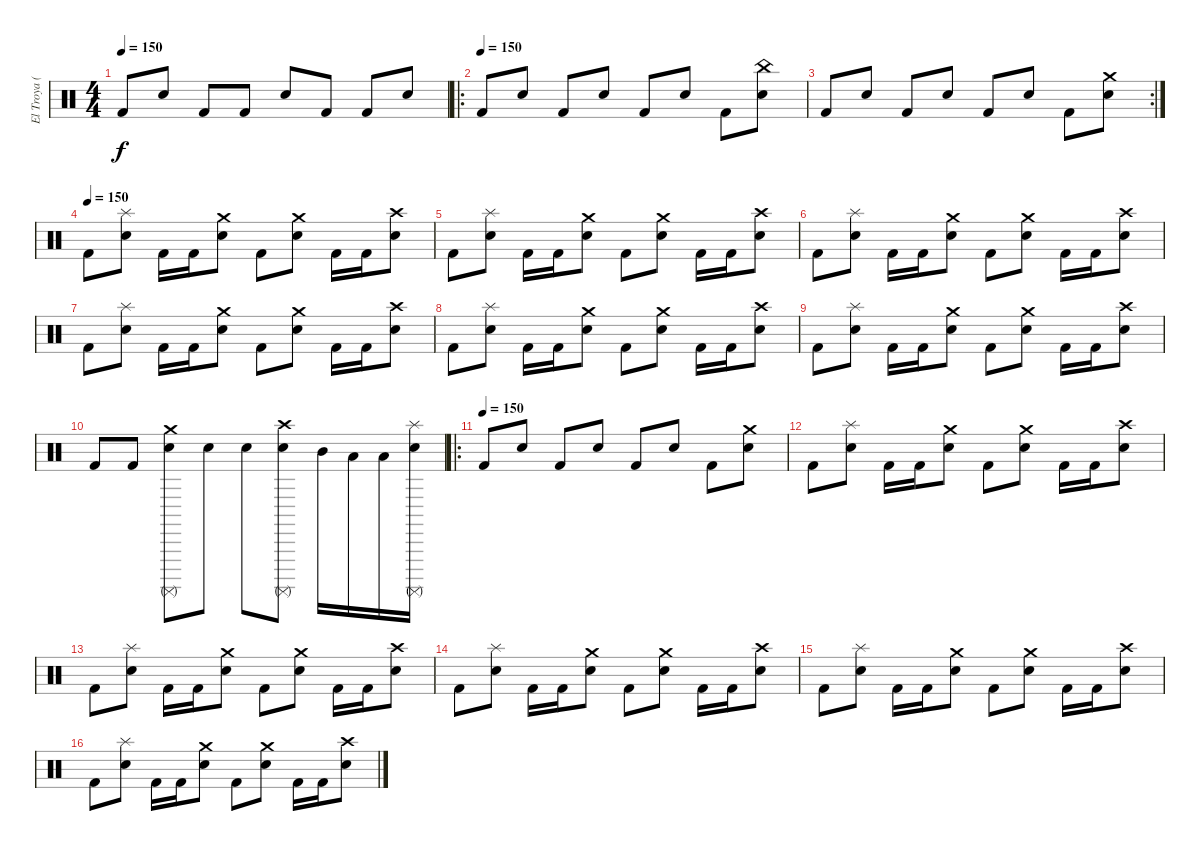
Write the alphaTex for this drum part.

\track ("El Troya (premio)" "El Troya (") {instrument percussion}
\staff {score}
\articulation defaults
\ts (4 4)
\tempo 150
\clef neutral
\ks c "Kick (hit) 2".8{dy f} "Snare (hit) 2".8 "Kick (hit) 2".8 "Kick (hit) 2".8 "Snare (hit) 2".8 "Kick (hit) 2".8 "Kick (hit) 2".8 "Snare (hit) 2".8
|
\ro
\tempo (150)
"Kick (hit) 2".8 "Snare (hit) 2".8 "Kick (hit) 2".8 "Snare (hit) 2".8 "Kick (hit) 2".8 "Snare (hit) 2".8 "Kick (hit) 2".8 ("China (hit)" "Snare (hit) 2").8 |
\rc 2 "Kick (hit) 2".8 "Snare (hit) 2".8 "Kick (hit) 2".8 "Snare (hit) 2".8 "Kick (hit) 2".8 "Snare (hit) 2".8 "Kick (hit) 2".8
("Crash medium (hit)" "Snare (hit) 2").8 |
\tempo (150)
"Kick (hit) 2".8 ("Splash (hit)" "Snare (hit) 2").8 "Kick (hit) 2".16 "Kick (hit) 2".16 ("Crash medium (hit)" "Snare (hit) 2").8 "Kick (hit) 2".8 ("Crash medium (hit)" "Snare (hit) 2").8 "Kick (hit) 2".16 "Kick (hit) 2".16 ("Crash high (hit)" "Snare (hit) 2").8 |
"Kick (hit) 2".8 ("Splash (hit)" "Snare (hit) 2").8 "Kick (hit) 2".16 "Kick (hit) 2".16 ("Crash medium (hit)" "Snare (hit) 2").8 "Kick (hit) 2".8 ("Crash medium (hit)" "Snare (hit) 2").8 "Kick (hit) 2".16 "Kick (hit) 2".16 ("Crash high (hit)" "Snare (hit) 2").8 |
"Kick (hit) 2".8 ("Splash (hit)" "Snare (hit) 2").8 "Kick (hit) 2".16 "Kick (hit) 2".16 ("Crash medium (hit)" "Snare (hit) 2").8 "Kick (hit) 2".8 ("Crash medium (hit)" "Snare (hit) 2").8 "Kick (hit) 2".16 "Kick (hit) 2".16 ("Crash high (hit)" "Snare (hit) 2").8 |
"Kick (hit) 2".8 ("Splash (hit)" "Snare (hit) 2").8 "Kick (hit) 2".16 "Kick (hit) 2".16 ("Crash medium (hit)" "Snare (hit) 2").8 "Kick (hit) 2".8 ("Crash medium (hit)" "Snare (hit) 2").8 "Kick (hit) 2".16 "Kick (hit) 2".16 ("Crash high (hit)" "Snare (hit) 2").8 |
"Kick (hit) 2".8 ("Splash (hit)" "Snare (hit) 2").8 "Kick (hit) 2".16 "Kick (hit) 2".16 ("Crash medium (hit)" "Snare (hit) 2").8 "Kick (hit) 2".8 ("Crash medium (hit)" "Snare (hit) 2").8 "Kick (hit) 2".16 "Kick (hit) 2".16 ("Crash high (hit)" "Snare (hit) 2").8 |
"Kick (hit) 2".8 ("Splash (hit)" "Snare (hit) 2").8 "Kick (hit) 2".16 "Kick (hit) 2".16 ("Crash medium (hit)" "Snare (hit) 2").8 "Kick (hit) 2".8 ("Crash medium (hit)" "Snare (hit) 2").8 "Kick (hit) 2".16 "Kick (hit) 2".16 ("Crash high (hit)" "Snare (hit) 2").8 |
"Kick (hit) 2".8 "Kick (hit) 2".8 ("Surdo (mute)" "Electric Snare (hit)" "Crash medium (hit)").8 "Snare (hit) 2".8 "Snare (hit) 2".8 ("Surdo (mute)" "Electric Snare (hit)" "Crash high (hit)").8 "Mid Tom (hit)".16 "Low Tom (hit)".16 "Low Floor Tom (hit)".16 ("Surdo (mute)" "Electric Snare (hit)" "Splash (hit)").16 |
\ro
\tempo (150)
"Kick (hit) 2".8 "Snare (hit) 2".8 "Kick (hit) 2".8 "Snare (hit) 2".8 "Kick (hit) 2".8 "Snare (hit) 2".8 "Kick (hit) 2".8 ("Crash medium (hit)" "Snare (hit) 2").8 |
"Kick (hit) 2".8 ("Splash (hit)" "Snare (hit) 2").8 "Kick (hit) 2".16 "Kick (hit) 2".16 ("Crash medium (hit)" "Snare (hit) 2").8 "Kick (hit) 2".8 ("Crash medium (hit)" "Snare (hit) 2").8 "Kick (hit) 2".16 "Kick (hit) 2".16 ("Crash high (hit)" "Snare (hit) 2").8 |
"Kick (hit) 2".8 ("Splash (hit)" "Snare (hit) 2").8 "Kick (hit) 2".16 "Kick (hit) 2".16 ("Crash medium (hit)" "Snare (hit) 2").8 "Kick (hit) 2".8 ("Crash medium (hit)" "Snare (hit) 2").8 "Kick (hit) 2".16 "Kick (hit) 2".16 ("Crash high (hit)" "Snare (hit) 2").8 |
"Kick (hit) 2".8 ("Splash (hit)" "Snare (hit) 2").8 "Kick (hit) 2".16 "Kick (hit) 2".16 ("Crash medium (hit)" "Snare (hit) 2").8 "Kick (hit) 2".8 ("Crash medium (hit)" "Snare (hit) 2").8 "Kick (hit) 2".16 "Kick (hit) 2".16 ("Crash high (hit)" "Snare (hit) 2").8 |
"Kick (hit) 2".8 ("Splash (hit)" "Snare (hit) 2").8 "Kick (hit) 2".16 "Kick (hit) 2".16 ("Crash medium (hit)" "Snare (hit) 2").8 "Kick (hit) 2".8 ("Crash medium (hit)" "Snare (hit) 2").8 "Kick (hit) 2".16 "Kick (hit) 2".16 ("Crash high (hit)" "Snare (hit) 2").8 |
"Kick (hit) 2".8 ("Splash (hit)" "Snare (hit) 2").8 "Kick (hit) 2".16 "Kick (hit) 2".16 ("Crash medium (hit)" "Snare (hit) 2").8 "Kick (hit) 2".8 ("Crash medium (hit)" "Snare (hit) 2").8 "Kick (hit) 2".16 "Kick (hit) 2".16 ("Crash high (hit)" "Snare (hit) 2").8
